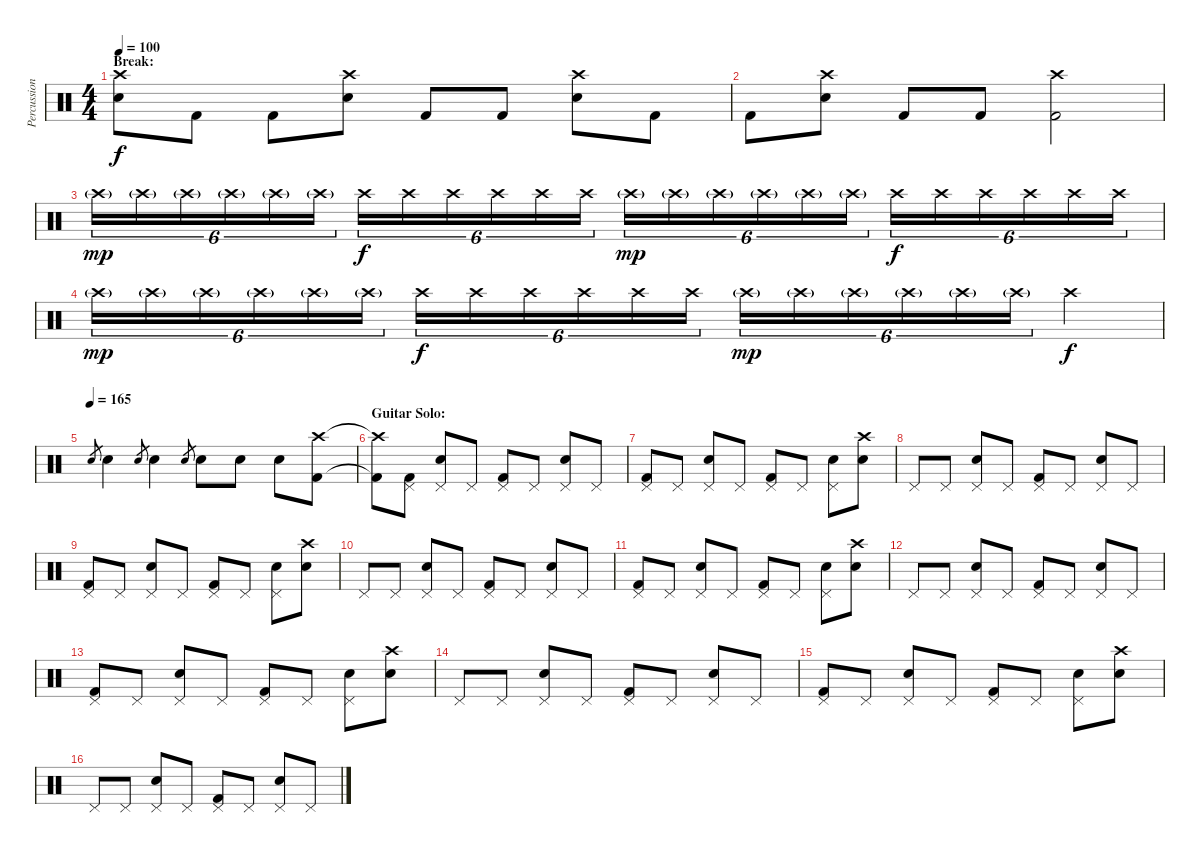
\track ("Percussion" "Percussion") {instrument percussion}
\staff {score}
\articulation defaults
\ts (4 4)
\section ("" "Break:")
\tempo 100
\clef neutral
\ks c
("Crash high (hit)" "Snare (hit) 2").8{dy f} "Kick (hit) 2".8 "Kick (hit) 2".8 ("Crash high (hit)" "Snare (hit) 2").8 "Kick (hit) 2".8 "Kick (hit) 2".8 ("Crash high (hit)" "Snare (hit) 2").8 "Kick (hit) 2".8 |
"Kick (hit) 2".8 ("Crash high (hit)" "Snare (hit) 2").8 "Kick (hit) 2".8 "Kick (hit) 2".8 ("Crash high (hit)" "Kick (hit) 2").2 |
"Crash high (hit)"{g}.16{tu (6 4) dy mp} "Crash high (hit)"{g}.16{tu (6 4)} "Crash high (hit)"{g}.16{tu (6 4)} "Crash high (hit)"{g}.16{tu (6 4)} "Crash high (hit)"{g}.16{tu (6 4)} "Crash high (hit)"{g}.16{tu (6 4)} "Crash high (hit)".16{tu (6 4) dy f} "Crash high (hit)".16{tu (6 4)} "Crash high (hit)".16{tu (6 4)} "Crash high (hit)".16{tu (6 4)} "Crash high (hit)".16{tu (6 4)} "Crash high (hit)".16{tu (6 4)} "Crash high (hit)"{g}.16{tu (6 4) dy mp} "Crash high (hit)"{g}.16{tu (6 4)} "Crash high (hit)"{g}.16{tu (6 4)} "Crash high (hit)"{g}.16{tu (6 4)} "Crash high (hit)"{g}.16{tu (6 4)} "Crash high (hit)"{g}.16{tu (6 4)} "Crash high (hit)".16{tu (6 4) dy f} "Crash high (hit)".16{tu (6 4)} "Crash high (hit)".16{tu (6 4)} "Crash high (hit)".16{tu (6 4)} "Crash high (hit)".16{tu (6 4)} "Crash high (hit)".16{tu (6 4)} |
"Crash high (hit)"{g}.16{tu (6 4) dy mp} "Crash high (hit)"{g}.16{tu (6 4)} "Crash high (hit)"{g}.16{tu (6 4)} "Crash high (hit)"{g}.16{tu (6 4)} "Crash high (hit)"{g}.16{tu (6 4)} "Crash high (hit)"{g}.16{tu (6 4)} "Crash high (hit)".16{tu (6 4) dy f} "Crash high (hit)".16{tu (6 4)} "Crash high (hit)".16{tu (6 4)} "Crash high (hit)".16{tu (6 4)} "Crash high (hit)".16{tu (6 4)} "Crash high (hit)".16{tu (6 4)} "Crash high (hit)"{g}.16{tu (6 4) dy mp} "Crash high (hit)"{g}.16{tu (6 4)} "Crash high (hit)"{g}.16{tu (6 4)} "Crash high (hit)"{g}.16{tu (6 4)} "Crash high (hit)"{g}.16{tu (6 4)} "Crash high (hit)"{g}.16{tu (6 4)} "Crash high (hit)".4{dy f} |
\tempo (165)
"Snare (hit) 2".8{gr} "Snare (hit) 2".4 "Snare (hit) 2".8{gr} "Snare (hit) 2".4 "Snare (hit) 2".8{gr} "Snare (hit) 2".8 "Snare (hit) 2".8 "Snare (hit) 2".8 ("Crash high (hit)" "Kick (hit) 2").8 |
\section ("" "Guitar Solo:")
("Crash high (hit)"{t} "Kick (hit) 2"{t}).8 ("Pedal Hi-Hat (hit)" "Kick (hit) 2").8 ("Pedal Hi-Hat (hit)" "Snare (hit) 2").8 "Pedal Hi-Hat (hit)".8 ("Pedal Hi-Hat (hit)" "Kick (hit) 2").8 "Pedal Hi-Hat (hit)".8 ("Pedal Hi-Hat (hit)" "Snare (hit) 2").8 "Pedal Hi-Hat (hit)".8 |
("Pedal Hi-Hat (hit)" "Kick (hit) 2").8 "Pedal Hi-Hat (hit)".8 ("Pedal Hi-Hat (hit)" "Snare (hit) 2").8 "Pedal Hi-Hat (hit)".8 ("Pedal Hi-Hat (hit)" "Kick (hit) 2").8 "Pedal Hi-Hat (hit)".8 ("Pedal Hi-Hat (hit)" "Snare (hit) 2").8 ("Crash high (hit)" "Snare (hit) 2").8 |
"Pedal Hi-Hat (hit)".8 "Pedal Hi-Hat (hit)".8 ("Pedal Hi-Hat (hit)" "Snare (hit) 2").8 "Pedal Hi-Hat (hit)".8 ("Pedal Hi-Hat (hit)" "Kick (hit) 2").8 "Pedal Hi-Hat (hit)".8 ("Pedal Hi-Hat (hit)" "Snare (hit) 2").8 "Pedal Hi-Hat (hit)".8 |
("Pedal Hi-Hat (hit)" "Kick (hit) 2").8 "Pedal Hi-Hat (hit)".8 ("Pedal Hi-Hat (hit)" "Snare (hit) 2").8 "Pedal Hi-Hat (hit)".8 ("Pedal Hi-Hat (hit)" "Kick (hit) 2").8 "Pedal Hi-Hat (hit)".8 ("Pedal Hi-Hat (hit)" "Snare (hit) 2").8 ("Crash high (hit)" "Snare (hit) 2").8 |
"Pedal Hi-Hat (hit)".8 "Pedal Hi-Hat (hit)".8 ("Pedal Hi-Hat (hit)" "Snare (hit) 2").8 "Pedal Hi-Hat (hit)".8 ("Pedal Hi-Hat (hit)" "Kick (hit) 2").8 "Pedal Hi-Hat (hit)".8 ("Pedal Hi-Hat (hit)" "Snare (hit) 2").8 "Pedal Hi-Hat (hit)".8 |
("Pedal Hi-Hat (hit)" "Kick (hit) 2").8 "Pedal Hi-Hat (hit)".8 ("Pedal Hi-Hat (hit)" "Snare (hit) 2").8 "Pedal Hi-Hat (hit)".8 ("Pedal Hi-Hat (hit)" "Kick (hit) 2").8 "Pedal Hi-Hat (hit)".8 ("Pedal Hi-Hat (hit)" "Snare (hit) 2").8 ("Crash high (hit)" "Snare (hit) 2").8 |
"Pedal Hi-Hat (hit)".8 "Pedal Hi-Hat (hit)".8 ("Pedal Hi-Hat (hit)" "Snare (hit) 2").8 "Pedal Hi-Hat (hit)".8 ("Pedal Hi-Hat (hit)" "Kick (hit) 2").8 "Pedal Hi-Hat (hit)".8 ("Pedal Hi-Hat (hit)" "Snare (hit) 2").8 "Pedal Hi-Hat (hit)".8 |
("Pedal Hi-Hat (hit)" "Kick (hit) 2").8 "Pedal Hi-Hat (hit)".8 ("Pedal Hi-Hat (hit)" "Snare (hit) 2").8 "Pedal Hi-Hat (hit)".8 ("Pedal Hi-Hat (hit)" "Kick (hit) 2").8 "Pedal Hi-Hat (hit)".8 ("Pedal Hi-Hat (hit)" "Snare (hit) 2").8 ("Crash high (hit)" "Snare (hit) 2").8 |
"Pedal Hi-Hat (hit)".8 "Pedal Hi-Hat (hit)".8 ("Pedal Hi-Hat (hit)" "Snare (hit) 2").8 "Pedal Hi-Hat (hit)".8 ("Pedal Hi-Hat (hit)" "Kick (hit) 2").8 "Pedal Hi-Hat (hit)".8 ("Pedal Hi-Hat (hit)" "Snare (hit) 2").8 "Pedal Hi-Hat (hit)".8 |
("Pedal Hi-Hat (hit)" "Kick (hit) 2").8 "Pedal Hi-Hat (hit)".8 ("Pedal Hi-Hat (hit)" "Snare (hit) 2").8 "Pedal Hi-Hat (hit)".8 ("Pedal Hi-Hat (hit)" "Kick (hit) 2").8 "Pedal Hi-Hat (hit)".8 ("Pedal Hi-Hat (hit)" "Snare (hit) 2").8 ("Crash high (hit)" "Snare (hit) 2").8 |
"Pedal Hi-Hat (hit)".8 "Pedal Hi-Hat (hit)".8 ("Pedal Hi-Hat (hit)" "Snare (hit) 2").8 "Pedal Hi-Hat (hit)".8 ("Pedal Hi-Hat (hit)" "Kick (hit) 2").8 "Pedal Hi-Hat (hit)".8 ("Pedal Hi-Hat (hit)" "Snare (hit) 2").8 "Pedal Hi-Hat (hit)".8
